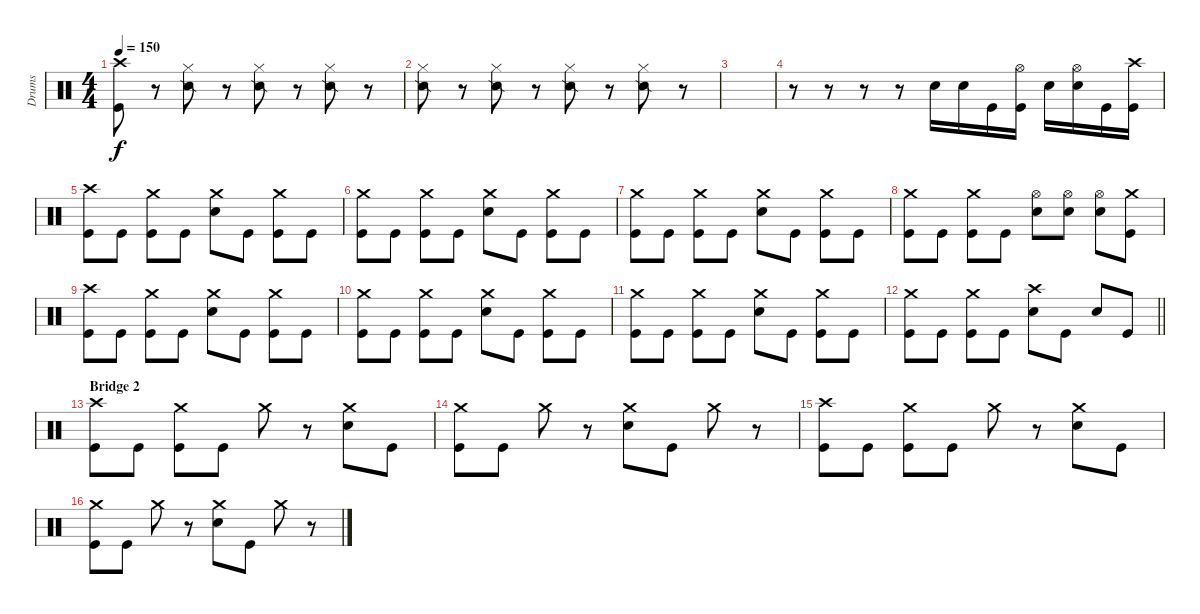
\track ("Drums" "Drums") {instrument percussion}
\staff {score}
\articulation defaults
\ts (4 4)
\tempo 150
\clef neutral
\ks c
("Crash high (hit)" "Kick (hit)").8{dy f} r.8 ("Hi-Hat (closed)" "Snare (side stick) 2").8 r.8 ("Hi-Hat (closed)" "Snare (side stick) 2").8 r.8 ("Hi-Hat (closed)" "Snare (side stick) 2").8 r.8 |
("Hi-Hat (closed)" "Snare (side stick) 2").8 r.8 ("Hi-Hat (closed)" "Snare (side stick) 2").8 r.8 ("Hi-Hat (closed)" "Snare (side stick) 2").8 r.8 ("Hi-Hat (closed)" "Snare (side stick) 2").8 r.8 |
|
r.8 r.8 r.8 r.8 "Electric Snare (hit)".16 "Electric Snare (hit)".16 "Kick (hit)".16 ("Hi-Hat (open)" "Kick (hit)").16 "Electric Snare (hit)".16 ("Hi-Hat (open)" "Electric Snare (hit)").16 "Kick (hit)".16 ("Crash high (hit)" "Kick (hit)").16 |
("Crash high (hit)" "Kick (hit)").8 "Kick (hit)".8 ("Crash medium (hit)" "Kick (hit)").8 "Kick (hit)".8 ("Crash medium (hit)" "Electric Snare (hit)").8 "Kick (hit)".8 ("Crash medium (hit)" "Kick (hit)").8 "Kick (hit)".8 |
("Crash medium (hit)" "Kick (hit)").8 "Kick (hit)".8 ("Crash medium (hit)" "Kick (hit)").8 "Kick (hit)".8 ("Crash medium (hit)" "Electric Snare (hit)").8 "Kick (hit)".8 ("Crash medium (hit)" "Kick (hit)").8 "Kick (hit)".8 |
("Crash medium (hit)" "Kick (hit)").8 "Kick (hit)".8 ("Crash medium (hit)" "Kick (hit)").8 "Kick (hit)".8 ("Crash medium (hit)" "Electric Snare (hit)").8 "Kick (hit)".8 ("Crash medium (hit)" "Kick (hit)").8 "Kick (hit)".8 |
("Crash medium (hit)" "Kick (hit)").8 "Kick (hit)".8 ("Crash medium (hit)" "Kick (hit)").8 "Kick (hit)".8 ("Hi-Hat (open)" "Electric Snare (hit)").8 ("Hi-Hat (open)" "Electric Snare (hit)").8 ("Hi-Hat (open)" "Electric Snare (hit)").8 ("Crash medium (hit)" "Kick (hit)").8 |
("Crash high (hit)" "Kick (hit)").8 "Kick (hit)".8 ("Crash medium (hit)" "Kick (hit)").8 "Kick (hit)".8 ("Crash medium (hit)" "Electric Snare (hit)").8 "Kick (hit)".8 ("Crash medium (hit)" "Kick (hit)").8 "Kick (hit)".8 |
("Crash medium (hit)" "Kick (hit)").8 "Kick (hit)".8 ("Crash medium (hit)" "Kick (hit)").8 "Kick (hit)".8 ("Crash medium (hit)" "Electric Snare (hit)").8 "Kick (hit)".8 ("Crash medium (hit)" "Kick (hit)").8 "Kick (hit)".8 |
("Crash medium (hit)" "Kick (hit)").8 "Kick (hit)".8 ("Crash medium (hit)" "Kick (hit)").8 "Kick (hit)".8 ("Crash medium (hit)" "Electric Snare (hit)").8 "Kick (hit)".8 ("Crash medium (hit)" "Kick (hit)").8 "Kick (hit)".8 |
\barLineRight lightlight
("Crash medium (hit)" "Kick (hit)").8 "Kick (hit)".8 ("Crash medium (hit)" "Kick (hit)").8 "Kick (hit)".8 ("Crash high (hit)" "Electric Snare (hit)").8 "Kick (hit)".8 "Electric Snare (hit)".8 "Kick (hit)".8 |
\section ("" "Bridge 2")
("Crash high (hit)" "Kick (hit)").8 "Kick (hit)".8 ("Crash medium (hit)" "Kick (hit)").8 "Kick (hit)".8 "Crash medium (hit)".8 r.8 ("Crash medium (hit)" "Electric Snare (hit)").8 "Kick (hit)".8 |
("Crash medium (hit)" "Kick (hit)").8 "Kick (hit)".8 "Crash medium (hit)".8 r.8 ("Crash medium (hit)" "Electric Snare (hit)").8 "Kick (hit)".8 "Crash medium (hit)".8 r.8 |
("Crash high (hit)" "Kick (hit)").8 "Kick (hit)".8 ("Crash medium (hit)" "Kick (hit)").8 "Kick (hit)".8 "Crash medium (hit)".8 r.8 ("Crash medium (hit)" "Electric Snare (hit)").8 "Kick (hit)".8 |
("Crash medium (hit)" "Kick (hit)").8 "Kick (hit)".8 "Crash medium (hit)".8 r.8 ("Crash medium (hit)" "Electric Snare (hit)").8 "Kick (hit)".8 "Crash medium (hit)".8 r.8
